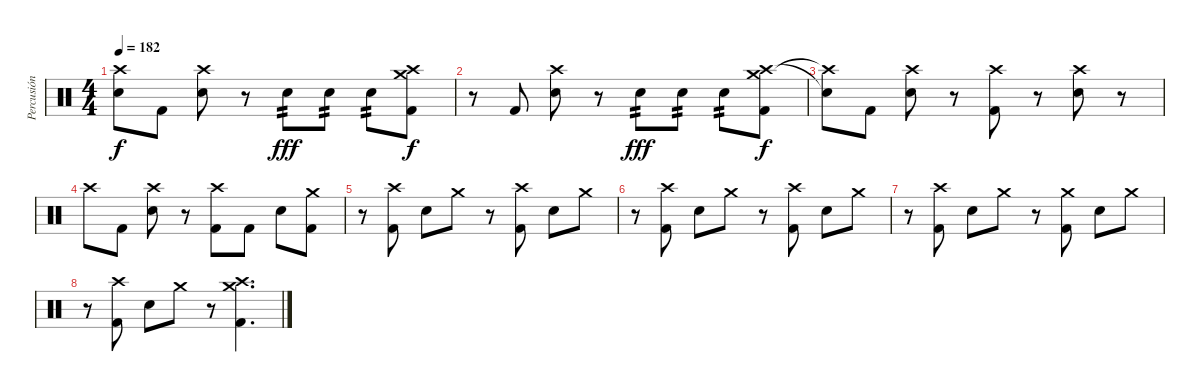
\track ("Percusión Kuliá" "Percusión ") {instrument percussion}
\staff {score}
\articulation defaults
\ts (4 4)
\tempo 182
\clef neutral
\ks c
("Snare (hit)"{t} "Crash high (hit)"{t}).8{dy f} "Kick (hit) 2".8 ("Crash high (hit)" "Electric Snare (hit)").8 r.8 "Electric Snare (hit)".8{tp 2 dy fff} "Electric Snare (hit)".8{tp 2} "Electric Snare (hit)".8{tp 2} ("Crash high (hit)" "Crash medium (hit)" "Kick (hit) 2").8{dy f} |
r.8 "Kick (hit) 2".8 ("Crash high (hit)" "Electric Snare (hit)").8 r.8 "Electric Snare (hit)".8{tp 2 dy fff} "Electric Snare (hit)".8{tp 2} "Electric Snare (hit)".8{tp 2} ("Crash high (hit)" "Crash medium (hit)" "Kick (hit) 2").8{dy f} |
("Snare (hit)"{t} "Crash high (hit)"{t}).8 "Kick (hit) 2".8 ("Crash high (hit)" "Electric Snare (hit)").8 r.8 ("Crash high (hit)" "Kick (hit) 2").8 r.8 ("Crash high (hit)" "Electric Snare (hit)").8 r.8 |
"Crash high (hit)".8 "Kick (hit) 2".8 ("Crash high (hit)" "Electric Snare (hit)").8 r.8 ("Crash high (hit)" "Kick (hit) 2").8 "Kick (hit) 2".8 "Electric Snare (hit)".8 ("Crash medium (hit)" "Kick (hit) 2").8 |
r.8 ("Crash high (hit)" "Kick (hit) 2").8 "Electric Snare (hit)".8 "Crash medium (hit)".8 r.8 ("Crash high (hit)" "Kick (hit) 2").8 "Electric Snare (hit)".8 "Crash medium (hit)".8 |
r.8 ("Crash high (hit)" "Kick (hit) 2").8 "Electric Snare (hit)".8 "Crash medium (hit)".8 r.8 ("Crash high (hit)" "Kick (hit) 2").8 "Electric Snare (hit)".8 "Crash medium (hit)".8 |
r.8 ("Crash high (hit)" "Kick (hit) 2").8 "Electric Snare (hit)".8 "Crash medium (hit)".8 r.8 ("Crash medium (hit)" "Kick (hit) 2").8 "Electric Snare (hit)".8 "Crash medium (hit)".8 |
r.8 ("Crash high (hit)" "Kick (hit) 2").8 "Electric Snare (hit)".8 "Crash medium (hit)".8 r.8 ("Crash high (hit)" "Crash medium (hit)" "Kick (hit) 2").4{d}
